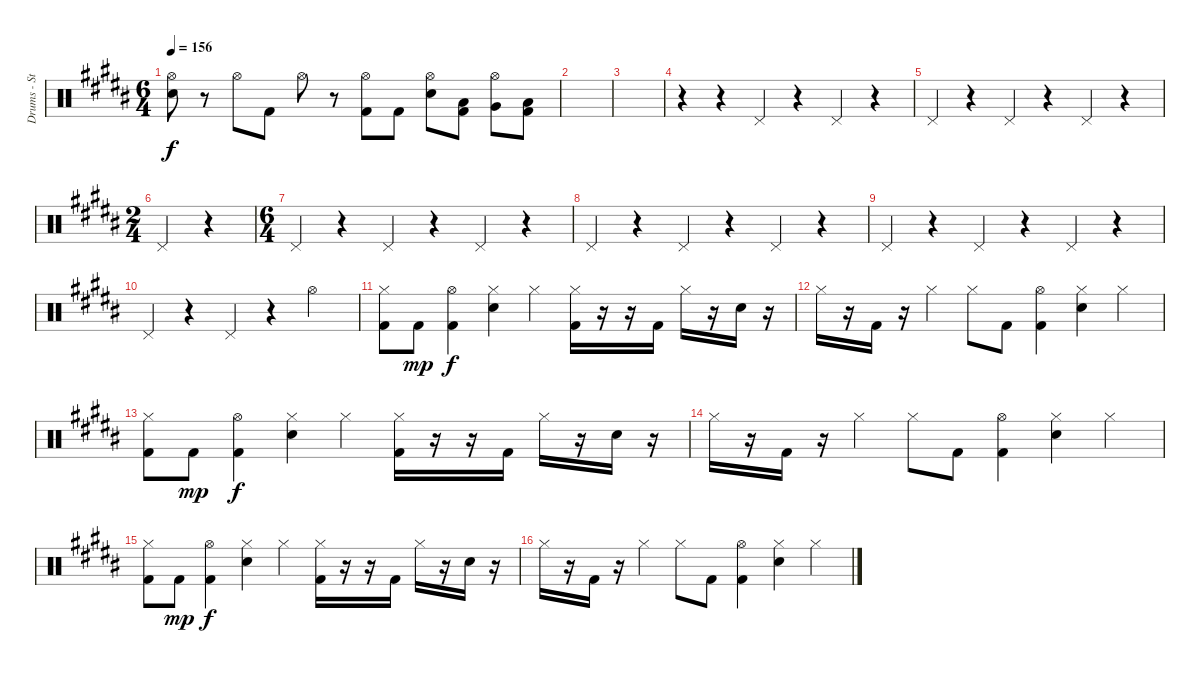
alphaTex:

\track ("Drums - Steve Judd" "Drums - St") {instrument percussion}
\staff {score}
\articulation defaults
\ts (6 4)
\tempo 156
\clef neutral
\ks b
("Hi-Hat (open)" "Electric Snare (hit)").8{dy f} r.8 "Hi-Hat (open)".8 "Kick (hit) 2".8 "Hi-Hat (open)".8 r.8 ("Hi-Hat (open)" "Kick (hit) 2").8 "Kick (hit) 2".8 ("Hi-Hat (open)" "Electric Snare (hit)").8 ("Low Tom (hit)" "Kick (hit) 2").8 ("Hi-Hat (open)" "Very Low Tom (hit)").8 ("Low Floor Tom (hit)" "Kick (hit) 2").8 |
|
|
r.4 r.4 "Pedal Hi-Hat (hit)".4 r.4 "Pedal Hi-Hat (hit)".4 r.4 |
"Pedal Hi-Hat (hit)".4 r.4 "Pedal Hi-Hat (hit)".4 r.4 "Pedal Hi-Hat (hit)".4 r.4 |
\ts (2 4)
"Pedal Hi-Hat (hit)".4 r.4 |
\ts (6 4)
"Pedal Hi-Hat (hit)".4 r.4 "Pedal Hi-Hat (hit)".4 r.4 "Pedal Hi-Hat (hit)".4 r.4 |
"Pedal Hi-Hat (hit)".4 r.4 "Pedal Hi-Hat (hit)".4 r.4 "Pedal Hi-Hat (hit)".4 r.4 |
"Pedal Hi-Hat (hit)".4 r.4 "Pedal Hi-Hat (hit)".4 r.4 "Pedal Hi-Hat (hit)".4 r.4 |
"Pedal Hi-Hat (hit)".4 r.4 "Pedal Hi-Hat (hit)".4 r.4 "Hi-Hat (open)".2 |
("Hi-Hat (closed)" "Kick (hit) 2").8 "Kick (hit) 2".8{dy mp} ("Hi-Hat (open)" "Kick (hit) 2").4{dy f} ("Electric Snare (hit)" "Hi-Hat (closed)").4 "Hi-Hat (closed)".4 ("Hi-Hat (closed)" "Kick (hit) 2").16 r.16 r.16 "Kick (hit) 2".16 "Hi-Hat (closed)".16 r.16 "Electric Snare (hit)".16 r.16 |
"Hi-Hat (closed)".16 r.16 "Kick (hit) 2".16 r.16 "Hi-Hat (closed)".4 "Hi-Hat (closed)".8 "Kick (hit) 2".8 ("Hi-Hat (open)" "Kick (hit) 2").4 ("Electric Snare (hit)" "Hi-Hat (closed)").4 "Hi-Hat (closed)".4 |
("Hi-Hat (closed)" "Kick (hit) 2").8 "Kick (hit) 2".8{dy mp} ("Hi-Hat (open)" "Kick (hit) 2").4{dy f} ("Electric Snare (hit)" "Hi-Hat (closed)").4 "Hi-Hat (closed)".4 ("Hi-Hat (closed)" "Kick (hit) 2").16 r.16 r.16 "Kick (hit) 2".16 "Hi-Hat (closed)".16 r.16 "Electric Snare (hit)".16 r.16 |
"Hi-Hat (closed)".16 r.16 "Kick (hit) 2".16 r.16 "Hi-Hat (closed)".4 "Hi-Hat (closed)".8 "Kick (hit) 2".8 ("Hi-Hat (open)" "Kick (hit) 2").4 ("Electric Snare (hit)" "Hi-Hat (closed)").4 "Hi-Hat (closed)".4 |
("Hi-Hat (closed)" "Kick (hit) 2").8 "Kick (hit) 2".8{dy mp} ("Hi-Hat (open)" "Kick (hit) 2").4{dy f} ("Electric Snare (hit)" "Hi-Hat (closed)").4 "Hi-Hat (closed)".4 ("Hi-Hat (closed)" "Kick (hit) 2").16 r.16 r.16 "Kick (hit) 2".16 "Hi-Hat (closed)".16 r.16 "Electric Snare (hit)".16 r.16 |
"Hi-Hat (closed)".16 r.16 "Kick (hit) 2".16 r.16 "Hi-Hat (closed)".4 "Hi-Hat (closed)".8 "Kick (hit) 2".8 ("Hi-Hat (open)" "Kick (hit) 2").4 ("Electric Snare (hit)" "Hi-Hat (closed)").4 "Hi-Hat (closed)".4
